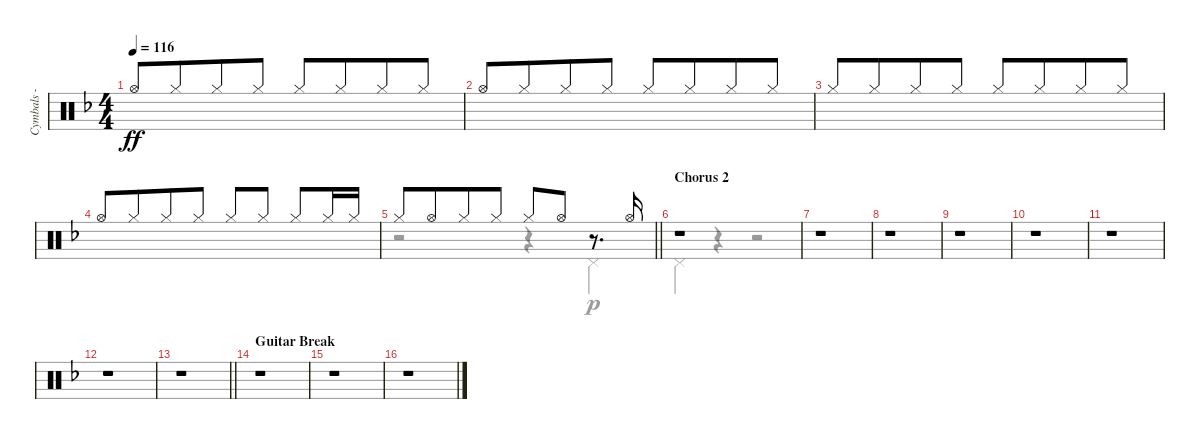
\track ("Cymbals - hi-hat" "Cymbals - ") {instrument percussion}
\staff {score}
\articulation defaults
\voice
\ts (4 4)
\tempo 116
\clef neutral
\ks f "Hi-Hat (open)".8{dy ff beam Up} "Hi-Hat (closed)".8{beam Up beam merge} "Hi-Hat (closed)".8{beam Up} "Hi-Hat (closed)".8{beam Up} "Hi-Hat (closed)".8{beam Up} "Hi-Hat (closed)".8{beam Up beam merge} "Hi-Hat (closed)".8{beam Up} "Hi-Hat (closed)".8{beam Up}
|
"Hi-Hat (open)".8{beam Up} "Hi-Hat (closed)".8{beam Up beam merge} "Hi-Hat (closed)".8{beam Up} "Hi-Hat (closed)".8{beam Up} "Hi-Hat (closed)".8{beam Up} "Hi-Hat (closed)".8{beam Up beam merge} "Hi-Hat (closed)".8{beam Up} "Hi-Hat (closed)".8{beam Up} |
"Hi-Hat (closed)".8{beam Up} "Hi-Hat (closed)".8{beam Up beam merge} "Hi-Hat (closed)".8{beam Up} "Hi-Hat (closed)".8{beam Up} "Hi-Hat (closed)".8{beam Up} "Hi-Hat (closed)".8{beam Up beam merge} "Hi-Hat (closed)".8{beam Up} "Hi-Hat (closed)".8{beam Up} |
"Hi-Hat (open)".8{beam Up} "Hi-Hat (closed)".8{beam Up beam merge} "Hi-Hat (closed)".8{beam Up} "Hi-Hat (closed)".8{beam Up} "Hi-Hat (closed)".8{beam Up} "Hi-Hat (closed)".8{beam Up beam split} "Hi-Hat (closed)".8{beam Up} "Hi-Hat (closed)".16{beam Up} "Hi-Hat (closed)".16{beam Up} |
\barLineRight lightlight "Hi-Hat (closed)".8 "Hi-Hat (open)".8{beam merge} "Hi-Hat (closed)".8 "Hi-Hat (closed)".8 "Hi-Hat (closed)".8 "Hi-Hat (open)".8
r.8{d} "Hi-Hat (open)".16 |
\section ("" "Chorus 2")
r.1 |
r.1 |
r.1 |
r.1 |
r.1 |
r.1 |
r.1 |
\barLineRight lightlight
r.1 |
\section ("" "Guitar Break")
r.1 |
r.1 |
r.1
\voice
\clef neutral
\ottava regular
\simile none
\ks f
|
|
|
|
\barLineRight lightlight
r.2 r.4 "Pedal Hi-Hat (hit)".4{dy p} |
"Pedal Hi-Hat (hit)".4 r.4 r.2 |
|
|
|
|
|
|
\barLineRight lightlight
|
|
|
